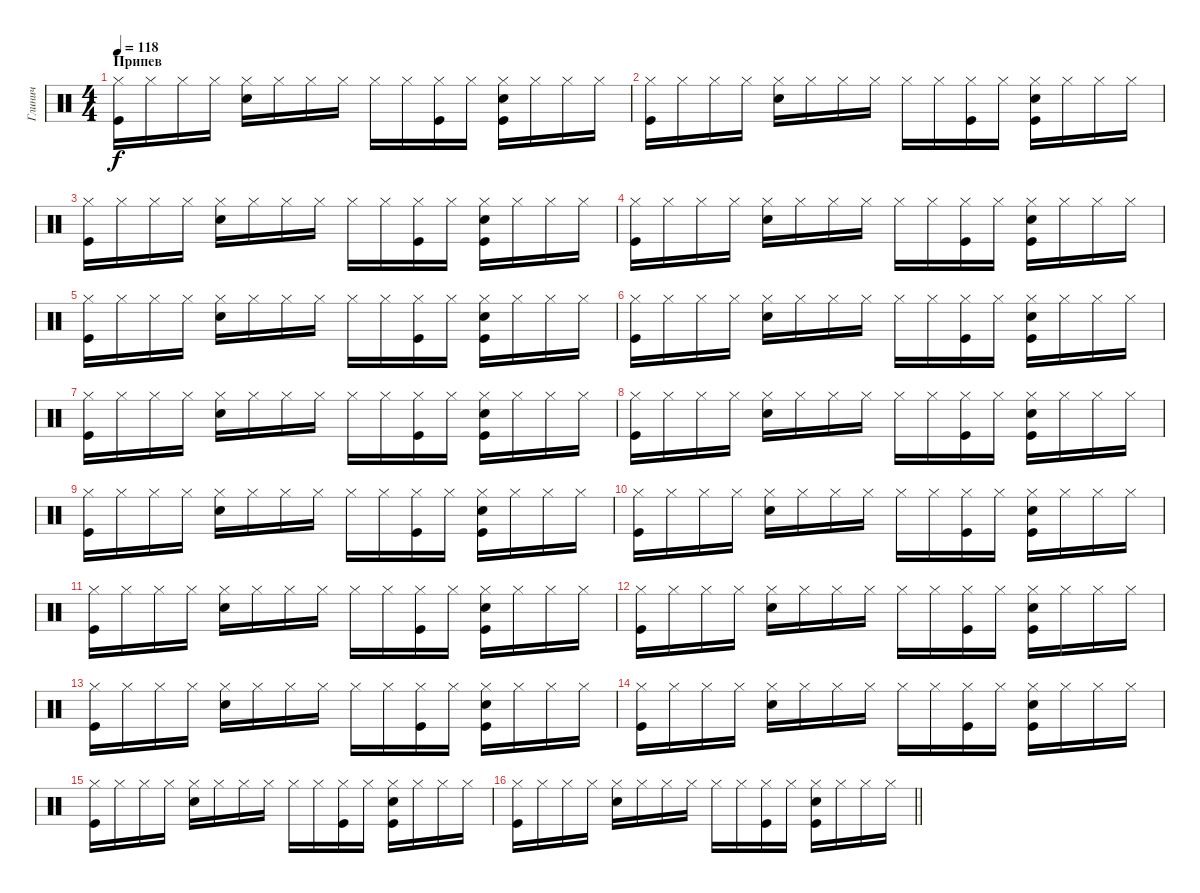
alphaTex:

\track ("Глинич" "Глинич") {instrument percussion}
\staff {score}
\articulation defaults
\ts (4 4)
\section ("" "Припев")
\tempo 118
\clef neutral
\ks c
("Hi-Hat (closed)" "Kick (hit)").16{dy f} "Hi-Hat (closed)".16 "Hi-Hat (closed)".16 "Hi-Hat (closed)".16 ("Hi-Hat (closed)" "Snare (hit) 2").16 "Hi-Hat (closed)".16 "Hi-Hat (closed)".16 "Hi-Hat (closed)".16 "Hi-Hat (closed)".16 "Hi-Hat (closed)".16 ("Hi-Hat (closed)" "Kick (hit)").16 "Hi-Hat (closed)".16 ("Hi-Hat (closed)" "Snare (hit) 2" "Kick (hit)").16 "Hi-Hat (closed)".16 "Hi-Hat (closed)".16 "Hi-Hat (closed)".16 |
("Hi-Hat (closed)" "Kick (hit)").16 "Hi-Hat (closed)".16 "Hi-Hat (closed)".16 "Hi-Hat (closed)".16 ("Hi-Hat (closed)" "Snare (hit) 2").16 "Hi-Hat (closed)".16 "Hi-Hat (closed)".16 "Hi-Hat (closed)".16 "Hi-Hat (closed)".16 "Hi-Hat (closed)".16 ("Hi-Hat (closed)" "Kick (hit)").16 "Hi-Hat (closed)".16 ("Hi-Hat (closed)" "Snare (hit) 2" "Kick (hit)").16 "Hi-Hat (closed)".16 "Hi-Hat (closed)".16 "Hi-Hat (closed)".16 |
("Hi-Hat (closed)" "Kick (hit)").16 "Hi-Hat (closed)".16 "Hi-Hat (closed)".16 "Hi-Hat (closed)".16 ("Hi-Hat (closed)" "Snare (hit) 2").16 "Hi-Hat (closed)".16 "Hi-Hat (closed)".16 "Hi-Hat (closed)".16 "Hi-Hat (closed)".16 "Hi-Hat (closed)".16 ("Hi-Hat (closed)" "Kick (hit)").16 "Hi-Hat (closed)".16 ("Hi-Hat (closed)" "Snare (hit) 2" "Kick (hit)").16 "Hi-Hat (closed)".16 "Hi-Hat (closed)".16 "Hi-Hat (closed)".16 |
("Hi-Hat (closed)" "Kick (hit)").16 "Hi-Hat (closed)".16 "Hi-Hat (closed)".16 "Hi-Hat (closed)".16 ("Hi-Hat (closed)" "Snare (hit) 2").16 "Hi-Hat (closed)".16 "Hi-Hat (closed)".16 "Hi-Hat (closed)".16 "Hi-Hat (closed)".16 "Hi-Hat (closed)".16 ("Hi-Hat (closed)" "Kick (hit)").16 "Hi-Hat (closed)".16 ("Hi-Hat (closed)" "Snare (hit) 2" "Kick (hit)").16 "Hi-Hat (closed)".16 "Hi-Hat (closed)".16 "Hi-Hat (closed)".16 |
("Hi-Hat (closed)" "Kick (hit)").16 "Hi-Hat (closed)".16 "Hi-Hat (closed)".16 "Hi-Hat (closed)".16 ("Hi-Hat (closed)" "Snare (hit) 2").16 "Hi-Hat (closed)".16 "Hi-Hat (closed)".16 "Hi-Hat (closed)".16 "Hi-Hat (closed)".16 "Hi-Hat (closed)".16 ("Hi-Hat (closed)" "Kick (hit)").16 "Hi-Hat (closed)".16 ("Hi-Hat (closed)" "Snare (hit) 2" "Kick (hit)").16 "Hi-Hat (closed)".16 "Hi-Hat (closed)".16 "Hi-Hat (closed)".16 |
("Hi-Hat (closed)" "Kick (hit)").16 "Hi-Hat (closed)".16 "Hi-Hat (closed)".16 "Hi-Hat (closed)".16 ("Hi-Hat (closed)" "Snare (hit) 2").16 "Hi-Hat (closed)".16 "Hi-Hat (closed)".16 "Hi-Hat (closed)".16 "Hi-Hat (closed)".16 "Hi-Hat (closed)".16 ("Hi-Hat (closed)" "Kick (hit)").16 "Hi-Hat (closed)".16 ("Hi-Hat (closed)" "Snare (hit) 2" "Kick (hit)").16 "Hi-Hat (closed)".16 "Hi-Hat (closed)".16 "Hi-Hat (closed)".16 |
("Hi-Hat (closed)" "Kick (hit)").16 "Hi-Hat (closed)".16 "Hi-Hat (closed)".16 "Hi-Hat (closed)".16 ("Hi-Hat (closed)" "Snare (hit) 2").16 "Hi-Hat (closed)".16 "Hi-Hat (closed)".16 "Hi-Hat (closed)".16 "Hi-Hat (closed)".16 "Hi-Hat (closed)".16 ("Hi-Hat (closed)" "Kick (hit)").16 "Hi-Hat (closed)".16 ("Hi-Hat (closed)" "Snare (hit) 2" "Kick (hit)").16 "Hi-Hat (closed)".16 "Hi-Hat (closed)".16 "Hi-Hat (closed)".16 |
("Hi-Hat (closed)" "Kick (hit)").16 "Hi-Hat (closed)".16 "Hi-Hat (closed)".16 "Hi-Hat (closed)".16 ("Hi-Hat (closed)" "Snare (hit) 2").16 "Hi-Hat (closed)".16 "Hi-Hat (closed)".16 "Hi-Hat (closed)".16 "Hi-Hat (closed)".16 "Hi-Hat (closed)".16 ("Hi-Hat (closed)" "Kick (hit)").16 "Hi-Hat (closed)".16 ("Hi-Hat (closed)" "Snare (hit) 2" "Kick (hit)").16 "Hi-Hat (closed)".16 "Hi-Hat (closed)".16 "Hi-Hat (closed)".16 |
("Hi-Hat (closed)" "Kick (hit)").16 "Hi-Hat (closed)".16 "Hi-Hat (closed)".16 "Hi-Hat (closed)".16 ("Hi-Hat (closed)" "Snare (hit) 2").16 "Hi-Hat (closed)".16 "Hi-Hat (closed)".16 "Hi-Hat (closed)".16 "Hi-Hat (closed)".16 "Hi-Hat (closed)".16 ("Hi-Hat (closed)" "Kick (hit)").16 "Hi-Hat (closed)".16 ("Hi-Hat (closed)" "Snare (hit) 2" "Kick (hit)").16 "Hi-Hat (closed)".16 "Hi-Hat (closed)".16 "Hi-Hat (closed)".16 |
("Hi-Hat (closed)" "Kick (hit)").16 "Hi-Hat (closed)".16 "Hi-Hat (closed)".16 "Hi-Hat (closed)".16 ("Hi-Hat (closed)" "Snare (hit) 2").16 "Hi-Hat (closed)".16 "Hi-Hat (closed)".16 "Hi-Hat (closed)".16 "Hi-Hat (closed)".16 "Hi-Hat (closed)".16 ("Hi-Hat (closed)" "Kick (hit)").16 "Hi-Hat (closed)".16 ("Hi-Hat (closed)" "Snare (hit) 2" "Kick (hit)").16 "Hi-Hat (closed)".16 "Hi-Hat (closed)".16 "Hi-Hat (closed)".16 |
("Hi-Hat (closed)" "Kick (hit)").16 "Hi-Hat (closed)".16 "Hi-Hat (closed)".16 "Hi-Hat (closed)".16 ("Hi-Hat (closed)" "Snare (hit) 2").16 "Hi-Hat (closed)".16 "Hi-Hat (closed)".16 "Hi-Hat (closed)".16 "Hi-Hat (closed)".16 "Hi-Hat (closed)".16 ("Hi-Hat (closed)" "Kick (hit)").16 "Hi-Hat (closed)".16 ("Hi-Hat (closed)" "Snare (hit) 2" "Kick (hit)").16 "Hi-Hat (closed)".16 "Hi-Hat (closed)".16 "Hi-Hat (closed)".16 |
("Hi-Hat (closed)" "Kick (hit)").16 "Hi-Hat (closed)".16 "Hi-Hat (closed)".16 "Hi-Hat (closed)".16 ("Hi-Hat (closed)" "Snare (hit) 2").16 "Hi-Hat (closed)".16 "Hi-Hat (closed)".16 "Hi-Hat (closed)".16 "Hi-Hat (closed)".16 "Hi-Hat (closed)".16 ("Hi-Hat (closed)" "Kick (hit)").16 "Hi-Hat (closed)".16 ("Hi-Hat (closed)" "Snare (hit) 2" "Kick (hit)").16 "Hi-Hat (closed)".16 "Hi-Hat (closed)".16 "Hi-Hat (closed)".16 |
("Hi-Hat (closed)" "Kick (hit)").16 "Hi-Hat (closed)".16 "Hi-Hat (closed)".16 "Hi-Hat (closed)".16 ("Hi-Hat (closed)" "Snare (hit) 2").16 "Hi-Hat (closed)".16 "Hi-Hat (closed)".16 "Hi-Hat (closed)".16 "Hi-Hat (closed)".16 "Hi-Hat (closed)".16 ("Hi-Hat (closed)" "Kick (hit)").16 "Hi-Hat (closed)".16 ("Hi-Hat (closed)" "Snare (hit) 2" "Kick (hit)").16 "Hi-Hat (closed)".16 "Hi-Hat (closed)".16 "Hi-Hat (closed)".16 |
("Hi-Hat (closed)" "Kick (hit)").16 "Hi-Hat (closed)".16 "Hi-Hat (closed)".16 "Hi-Hat (closed)".16 ("Hi-Hat (closed)" "Snare (hit) 2").16 "Hi-Hat (closed)".16 "Hi-Hat (closed)".16 "Hi-Hat (closed)".16 "Hi-Hat (closed)".16 "Hi-Hat (closed)".16 ("Hi-Hat (closed)" "Kick (hit)").16 "Hi-Hat (closed)".16 ("Hi-Hat (closed)" "Snare (hit) 2" "Kick (hit)").16 "Hi-Hat (closed)".16 "Hi-Hat (closed)".16 "Hi-Hat (closed)".16 |
("Hi-Hat (closed)" "Kick (hit)").16 "Hi-Hat (closed)".16 "Hi-Hat (closed)".16 "Hi-Hat (closed)".16 ("Hi-Hat (closed)" "Snare (hit) 2").16 "Hi-Hat (closed)".16 "Hi-Hat (closed)".16 "Hi-Hat (closed)".16 "Hi-Hat (closed)".16 "Hi-Hat (closed)".16 ("Hi-Hat (closed)" "Kick (hit)").16 "Hi-Hat (closed)".16 ("Hi-Hat (closed)" "Snare (hit) 2" "Kick (hit)").16 "Hi-Hat (closed)".16 "Hi-Hat (closed)".16 "Hi-Hat (closed)".16 |
\barLineRight lightlight
("Hi-Hat (closed)" "Kick (hit)").16 "Hi-Hat (closed)".16 "Hi-Hat (closed)".16 "Hi-Hat (closed)".16 ("Hi-Hat (closed)" "Snare (hit) 2").16 "Hi-Hat (closed)".16 "Hi-Hat (closed)".16 "Hi-Hat (closed)".16 "Hi-Hat (closed)".16 "Hi-Hat (closed)".16 ("Hi-Hat (closed)" "Kick (hit)").16 "Hi-Hat (closed)".16 ("Hi-Hat (closed)" "Snare (hit) 2" "Kick (hit)").16 "Hi-Hat (closed)".16 "Hi-Hat (closed)".16 "Hi-Hat (closed)".16
